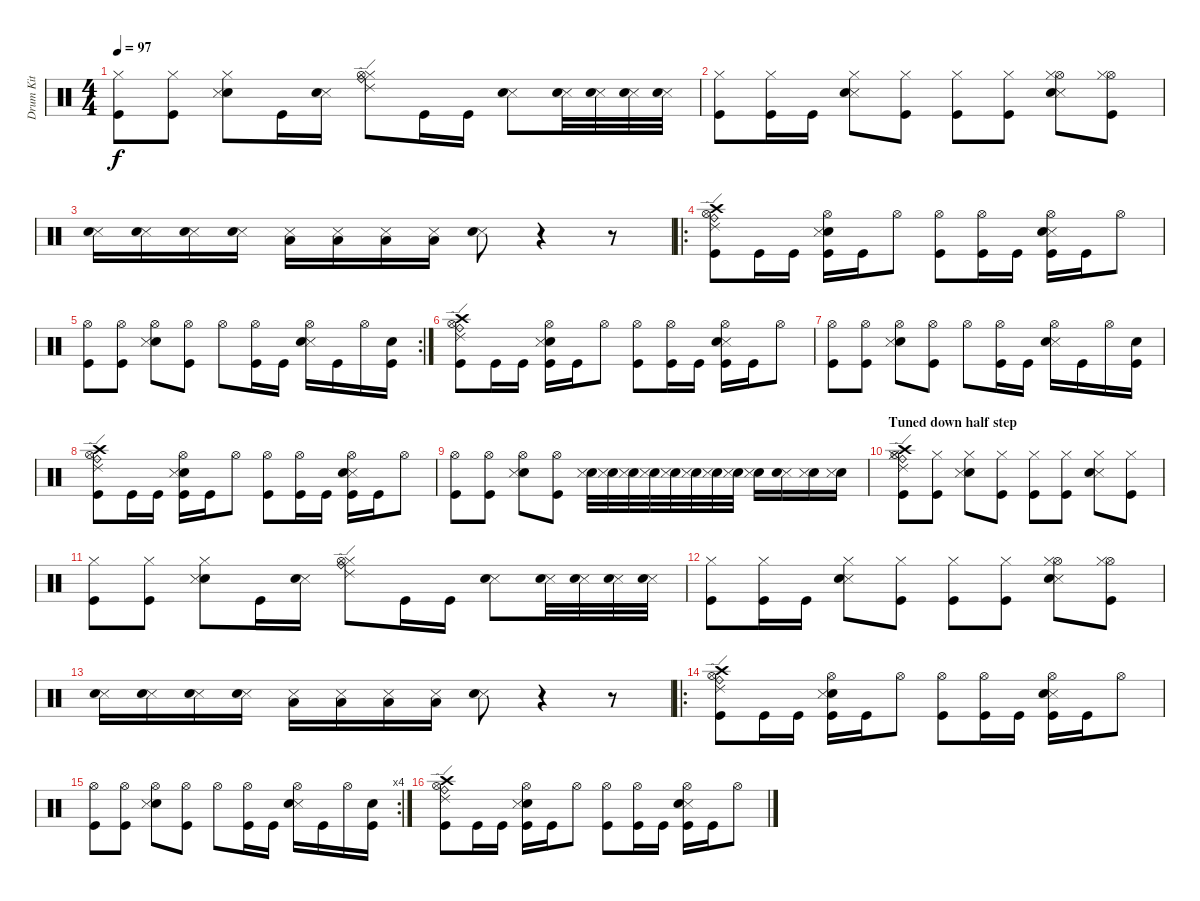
\track ("Drum Kit" "Drum Kit") {instrument percussion}
\staff {score}
\articulation defaults
\ts (4 4)
\tempo 97
\clef neutral
\ks c
("Hi-Hat (closed)" "Kick (hit)").8{dy f} ("Hi-Hat (closed)" "Kick (hit)").8 ("Hi-Hat (closed)" "Electric Snare (hit)" "Snare (side stick) 3").8 "Kick (hit)".16 ("Snare (side stick) 3" "Electric Snare (hit)").16 ("Hi-Hat (closed)" "Hi-Hat (open)" "Ride (bell)" "Ride (edge) 2").8 "Kick (hit)".16 "Kick (hit)".16 ("Snare (side stick) 3" "Electric Snare (hit)").8 ("Snare (side stick) 3" "Electric Snare (hit)").32 ("Snare (side stick) 3" "Electric Snare (hit)").32 ("Snare (side stick) 3" "Electric Snare (hit)").32 ("Snare (side stick) 3" "Electric Snare (hit)").32 |
("Kick (hit)" "Hi-Hat (closed)").8 ("Kick (hit)" "Hi-Hat (closed)").16 "Kick (hit)".16 ("Snare (side stick) 3" "Electric Snare (hit)" "Hi-Hat (closed)").8 ("Kick (hit)" "Hi-Hat (closed)").8 ("Kick (hit)" "Hi-Hat (closed)").8 ("Kick (hit)" "Hi-Hat (closed)").8 ("Hi-Hat (open)" "Snare (side stick) 3" "Electric Snare (hit)" "Hi-Hat (closed)").8 ("Kick (hit)" "Hi-Hat (open)" "Hi-Hat (closed)").8 |
("Snare (side stick) 3" "Electric Snare (hit)").16 ("Snare (side stick) 3" "Electric Snare (hit)").16 ("Snare (side stick) 3" "Electric Snare (hit)").16 ("Snare (side stick) 3" "Electric Snare (hit)").16 ("Snare (side stick) 3" "Low Floor Tom (hit)").16 ("Snare (side stick) 3" "Low Floor Tom (hit)").16 ("Snare (side stick) 3" "Low Floor Tom (hit)").16 ("Snare (side stick) 3" "Low Floor Tom (hit)").16 ("Snare (side stick) 3" "Electric Snare (hit)").8 r.4 r.8 |
\ro
("Crash high (hit)" "Ride (edge) 2" "Kick (hit)" "Hi-Hat (open)" "Ride (bell)").8 "Kick (hit)".16 "Kick (hit)".16 ("Electric Snare (hit)" "Snare (side stick) 3" "Kick (hit)" "Hi-Hat (open)").16 "Kick (hit)".16 "Hi-Hat (open)".8 ("Kick (hit)" "Hi-Hat (open)").8 ("Kick (hit)" "Hi-Hat (open)").16 "Kick (hit)".16 ("Snare (side stick) 3" "Electric Snare (hit)" "Kick (hit)" "Hi-Hat (open)").16 "Kick (hit)".16 "Hi-Hat (open)".8 |
\rc 2
("Kick (hit)" "Hi-Hat (open)").8 ("Kick (hit)" "Hi-Hat (open)").8 ("Electric Snare (hit)" "Snare (side stick) 3" "Hi-Hat (open)").8 ("Kick (hit)" "Hi-Hat (open)").8 "Hi-Hat (open)".8 ("Kick (hit)" "Hi-Hat (open)").16 "Kick (hit)".16 ("Snare (side stick) 3" "Electric Snare (hit)" "Hi-Hat (open)").16 "Kick (hit)".16 "Hi-Hat (open)".16 ("Kick (hit)" "Electric Snare (hit)").16 |
("Crash high (hit)" "Ride (edge) 2" "Kick (hit)" "Hi-Hat (open)" "Ride (bell)").8 "Kick (hit)".16 "Kick (hit)".16 ("Electric Snare (hit)" "Snare (side stick) 3" "Kick (hit)" "Hi-Hat (open)").16 "Kick (hit)".16 "Hi-Hat (open)".8 ("Kick (hit)" "Hi-Hat (open)").8 ("Kick (hit)" "Hi-Hat (open)").16 "Kick (hit)".16 ("Snare (side stick) 3" "Electric Snare (hit)" "Kick (hit)" "Hi-Hat (open)").16 "Kick (hit)".16 "Hi-Hat (open)".8 |
("Kick (hit)" "Hi-Hat (open)").8 ("Kick (hit)" "Hi-Hat (open)").8 ("Electric Snare (hit)" "Snare (side stick) 3" "Hi-Hat (open)").8 ("Kick (hit)" "Hi-Hat (open)").8 "Hi-Hat (open)".8 ("Kick (hit)" "Hi-Hat (open)").16 "Kick (hit)".16 ("Snare (side stick) 3" "Electric Snare (hit)" "Hi-Hat (open)").16 "Kick (hit)".16 "Hi-Hat (open)".16 ("Kick (hit)" "Electric Snare (hit)").16 |
("Crash high (hit)" "Ride (edge) 2" "Kick (hit)" "Hi-Hat (open)" "Ride (bell)").8 "Kick (hit)".16 "Kick (hit)".16 ("Electric Snare (hit)" "Snare (side stick) 3" "Kick (hit)" "Hi-Hat (open)").16 "Kick (hit)".16 "Hi-Hat (open)".8 ("Kick (hit)" "Hi-Hat (open)").8 ("Kick (hit)" "Hi-Hat (open)").16 "Kick (hit)".16 ("Snare (side stick) 3" "Electric Snare (hit)" "Kick (hit)" "Hi-Hat (open)").16 "Kick (hit)".16 "Hi-Hat (open)".8 |
("Kick (hit)" "Hi-Hat (open)").8 ("Kick (hit)" "Hi-Hat (open)").8 ("Electric Snare (hit)" "Snare (side stick) 3" "Hi-Hat (open)").8 ("Kick (hit)" "Hi-Hat (open)").8 ("Electric Snare (hit)" "Snare (side stick) 3").32 ("Electric Snare (hit)" "Snare (side stick) 3").32 ("Electric Snare (hit)" "Snare (side stick) 3").32 ("Electric Snare (hit)" "Snare (side stick) 3").32 ("Electric Snare (hit)" "Snare (side stick) 3").32 ("Electric Snare (hit)" "Snare (side stick) 3").32 ("Electric Snare (hit)" "Snare (side stick) 3").32 ("Electric Snare (hit)" "Snare (side stick) 3").32 ("Electric Snare (hit)" "Snare (side stick) 3").16 ("Snare (side stick) 3" "Electric Snare (hit)").16 ("Electric Snare (hit)" "Snare (side stick) 3").16 ("Electric Snare (hit)" "Snare (side stick) 3").16 |
\section ("" "Tuned down half step")
("Kick (hit)" "Hi-Hat (closed)" "Hi-Hat (open)" "Crash high (hit)" "Ride (bell)" "Ride (edge) 2").8 ("Hi-Hat (closed)" "Kick (hit)").8 ("Hi-Hat (closed)" "Electric Snare (hit)" "Snare (side stick) 3").8 ("Hi-Hat (closed)" "Kick (hit)").8 ("Hi-Hat (closed)" "Kick (hit)").8 ("Kick (hit)" "Hi-Hat (closed)").8 ("Hi-Hat (closed)" "Snare (side stick) 3" "Electric Snare (hit)").8 ("Hi-Hat (closed)" "Kick (hit)").8 |
("Hi-Hat (closed)" "Kick (hit)").8 ("Hi-Hat (closed)" "Kick (hit)").8 ("Hi-Hat (closed)" "Electric Snare (hit)" "Snare (side stick) 3").8 "Kick (hit)".16 ("Snare (side stick) 3" "Electric Snare (hit)").16 ("Hi-Hat (closed)" "Hi-Hat (open)" "Ride (bell)" "Ride (edge) 2").8 "Kick (hit)".16 "Kick (hit)".16 ("Snare (side stick) 3" "Electric Snare (hit)").8 ("Snare (side stick) 3" "Electric Snare (hit)").32 ("Snare (side stick) 3" "Electric Snare (hit)").32 ("Snare (side stick) 3" "Electric Snare (hit)").32 ("Snare (side stick) 3" "Electric Snare (hit)").32 |
("Kick (hit)" "Hi-Hat (closed)").8 ("Kick (hit)" "Hi-Hat (closed)").16 "Kick (hit)".16 ("Snare (side stick) 3" "Electric Snare (hit)" "Hi-Hat (closed)").8 ("Kick (hit)" "Hi-Hat (closed)").8 ("Kick (hit)" "Hi-Hat (closed)").8 ("Kick (hit)" "Hi-Hat (closed)").8 ("Hi-Hat (open)" "Snare (side stick) 3" "Electric Snare (hit)" "Hi-Hat (closed)").8 ("Kick (hit)" "Hi-Hat (open)" "Hi-Hat (closed)").8 |
("Snare (side stick) 3" "Electric Snare (hit)").16 ("Snare (side stick) 3" "Electric Snare (hit)").16 ("Snare (side stick) 3" "Electric Snare (hit)").16 ("Snare (side stick) 3" "Electric Snare (hit)").16 ("Snare (side stick) 3" "Low Floor Tom (hit)").16 ("Snare (side stick) 3" "Low Floor Tom (hit)").16 ("Snare (side stick) 3" "Low Floor Tom (hit)").16 ("Snare (side stick) 3" "Low Floor Tom (hit)").16 ("Snare (side stick) 3" "Electric Snare (hit)").8 r.4 r.8 |
\ro
("Crash high (hit)" "Ride (edge) 2" "Kick (hit)" "Hi-Hat (open)" "Ride (bell)").8 "Kick (hit)".16 "Kick (hit)".16 ("Electric Snare (hit)" "Snare (side stick) 3" "Kick (hit)" "Hi-Hat (open)").16 "Kick (hit)".16 "Hi-Hat (open)".8 ("Kick (hit)" "Hi-Hat (open)").8 ("Kick (hit)" "Hi-Hat (open)").16 "Kick (hit)".16 ("Snare (side stick) 3" "Electric Snare (hit)" "Kick (hit)" "Hi-Hat (open)").16 "Kick (hit)".16 "Hi-Hat (open)".8 |
\rc 4
("Kick (hit)" "Hi-Hat (open)").8 ("Kick (hit)" "Hi-Hat (open)").8 ("Electric Snare (hit)" "Snare (side stick) 3" "Hi-Hat (open)").8 ("Kick (hit)" "Hi-Hat (open)").8 "Hi-Hat (open)".8 ("Kick (hit)" "Hi-Hat (open)").16 "Kick (hit)".16 ("Snare (side stick) 3" "Electric Snare (hit)" "Hi-Hat (open)").16 "Kick (hit)".16 "Hi-Hat (open)".16 ("Kick (hit)" "Electric Snare (hit)").16 |
("Crash high (hit)" "Ride (edge) 2" "Kick (hit)" "Hi-Hat (open)" "Ride (bell)").8 "Kick (hit)".16 "Kick (hit)".16 ("Electric Snare (hit)" "Snare (side stick) 3" "Kick (hit)" "Hi-Hat (open)").16 "Kick (hit)".16 "Hi-Hat (open)".8 ("Kick (hit)" "Hi-Hat (open)").8 ("Kick (hit)" "Hi-Hat (open)").16 "Kick (hit)".16 ("Snare (side stick) 3" "Electric Snare (hit)" "Kick (hit)" "Hi-Hat (open)").16 "Kick (hit)".16 "Hi-Hat (open)".8
